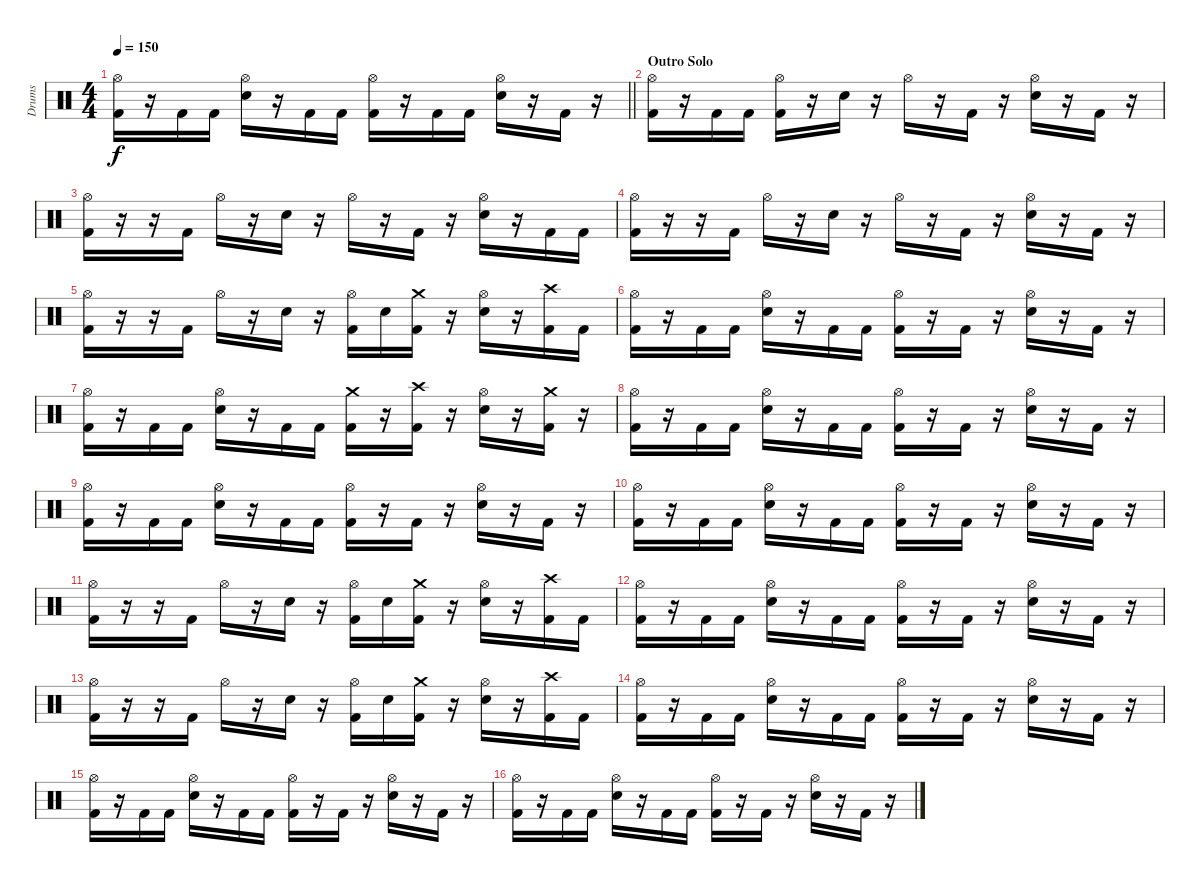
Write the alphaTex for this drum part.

\track ("Drums" "Drums") {instrument percussion}
\staff {score}
\articulation defaults
\ts (4 4)
\tempo 150
\clef neutral
\barLineRight lightlight
\ks c
("Hi-Hat (open)" "Kick (hit) 2").16{dy f} r.16 "Kick (hit) 2".16 "Kick (hit) 2".16 ("Hi-Hat (open)" "Snare (hit) 2").16 r.16 "Kick (hit) 2".16 "Kick (hit) 2".16 ("Hi-Hat (open)" "Kick (hit) 2").16 r.16 "Kick (hit) 2".16 "Kick (hit) 2".16 ("Hi-Hat (open)" "Snare (hit) 2").16 r.16 "Kick (hit) 2".16 r.16 |
\section ("" "Outro Solo")
("Hi-Hat (open)" "Kick (hit) 2").16 r.16 "Kick (hit) 2".16 "Kick (hit) 2".16 ("Hi-Hat (open)" "Kick (hit) 2").16 r.16 "Snare (hit) 2".16 r.16 "Hi-Hat (open)".16 r.16 "Kick (hit) 2".16 r.16 ("Hi-Hat (open)" "Snare (hit) 2").16 r.16 "Kick (hit) 2".16 r.16 |
("Hi-Hat (open)" "Kick (hit) 2").16 r.16 r.16 "Kick (hit) 2".16 "Hi-Hat (open)".16 r.16 "Snare (hit) 2".16 r.16 "Hi-Hat (open)".16 r.16 "Kick (hit) 2".16 r.16 ("Hi-Hat (open)" "Snare (hit) 2").16 r.16 "Kick (hit) 2".16 "Kick (hit) 2".16 |
("Hi-Hat (open)" "Kick (hit) 2").16 r.16 r.16 "Kick (hit) 2".16 "Hi-Hat (open)".16 r.16 "Snare (hit) 2".16 r.16 "Hi-Hat (open)".16 r.16 "Kick (hit) 2".16 r.16 ("Hi-Hat (open)" "Snare (hit) 2").16 r.16 "Kick (hit) 2".16 r.16 |
("Hi-Hat (open)" "Kick (hit) 2").16 r.16 r.16 "Kick (hit) 2".16 "Hi-Hat (open)".16 r.16 "Snare (hit) 2".16 r.16 ("Hi-Hat (open)" "Kick (hit) 2").16 "Snare (hit) 2".16 ("Crash medium (hit)" "Kick (hit) 2").16 r.16 ("Hi-Hat (open)" "Snare (hit) 2").16 r.16 ("Crash high (hit)" "Kick (hit) 2").16 "Kick (hit) 2".16 |
("Hi-Hat (open)" "Kick (hit) 2").16 r.16 "Kick (hit) 2".16 "Kick (hit) 2".16 ("Hi-Hat (open)" "Snare (hit) 2").16 r.16 "Kick (hit) 2".16 "Kick (hit) 2".16 ("Hi-Hat (open)" "Kick (hit) 2").16 r.16 "Kick (hit) 2".16 r.16 ("Hi-Hat (open)" "Snare (hit) 2").16 r.16 "Kick (hit) 2".16 r.16 |
("Hi-Hat (open)" "Kick (hit) 2").16 r.16 "Kick (hit) 2".16 "Kick (hit) 2".16 ("Hi-Hat (open)" "Snare (hit) 2").16 r.16 "Kick (hit) 2".16 "Kick (hit) 2".16 ("Crash medium (hit)" "Kick (hit) 2").16 r.16 ("Crash high (hit)" "Kick (hit) 2").16 r.16 ("Hi-Hat (open)" "Snare (hit) 2").16 r.16 ("Crash medium (hit)" "Kick (hit) 2").16 r.16 |
("Hi-Hat (open)" "Kick (hit) 2").16 r.16 "Kick (hit) 2".16 "Kick (hit) 2".16 ("Hi-Hat (open)" "Snare (hit) 2").16 r.16 "Kick (hit) 2".16 "Kick (hit) 2".16 ("Hi-Hat (open)" "Kick (hit) 2").16 r.16 "Kick (hit) 2".16 r.16 ("Hi-Hat (open)" "Snare (hit) 2").16 r.16 "Kick (hit) 2".16 r.16 |
("Hi-Hat (open)" "Kick (hit) 2").16 r.16 "Kick (hit) 2".16 "Kick (hit) 2".16 ("Hi-Hat (open)" "Snare (hit) 2").16 r.16 "Kick (hit) 2".16 "Kick (hit) 2".16 ("Hi-Hat (open)" "Kick (hit) 2").16 r.16 "Kick (hit) 2".16 r.16 ("Hi-Hat (open)" "Snare (hit) 2").16 r.16 "Kick (hit) 2".16 r.16 |
("Hi-Hat (open)" "Kick (hit) 2").16 r.16 "Kick (hit) 2".16 "Kick (hit) 2".16 ("Hi-Hat (open)" "Snare (hit) 2").16 r.16 "Kick (hit) 2".16 "Kick (hit) 2".16 ("Hi-Hat (open)" "Kick (hit) 2").16 r.16 "Kick (hit) 2".16 r.16 ("Hi-Hat (open)" "Snare (hit) 2").16 r.16 "Kick (hit) 2".16 r.16 |
("Hi-Hat (open)" "Kick (hit) 2").16 r.16 r.16 "Kick (hit) 2".16 "Hi-Hat (open)".16 r.16 "Snare (hit) 2".16 r.16 ("Hi-Hat (open)" "Kick (hit) 2").16 "Snare (hit) 2".16 ("Crash medium (hit)" "Kick (hit) 2").16 r.16 ("Hi-Hat (open)" "Snare (hit) 2").16 r.16 ("Crash high (hit)" "Kick (hit) 2").16 "Kick (hit) 2".16 |
("Hi-Hat (open)" "Kick (hit) 2").16 r.16 "Kick (hit) 2".16 "Kick (hit) 2".16 ("Hi-Hat (open)" "Snare (hit) 2").16 r.16 "Kick (hit) 2".16 "Kick (hit) 2".16 ("Hi-Hat (open)" "Kick (hit) 2").16 r.16 "Kick (hit) 2".16 r.16 ("Hi-Hat (open)" "Snare (hit) 2").16 r.16 "Kick (hit) 2".16 r.16 |
("Hi-Hat (open)" "Kick (hit) 2").16 r.16 r.16 "Kick (hit) 2".16 "Hi-Hat (open)".16 r.16 "Snare (hit) 2".16 r.16 ("Hi-Hat (open)" "Kick (hit) 2").16 "Snare (hit) 2".16 ("Crash medium (hit)" "Kick (hit) 2").16 r.16 ("Hi-Hat (open)" "Snare (hit) 2").16 r.16 ("Crash high (hit)" "Kick (hit) 2").16 "Kick (hit) 2".16 |
("Hi-Hat (open)" "Kick (hit) 2").16 r.16 "Kick (hit) 2".16 "Kick (hit) 2".16 ("Hi-Hat (open)" "Snare (hit) 2").16 r.16 "Kick (hit) 2".16 "Kick (hit) 2".16 ("Hi-Hat (open)" "Kick (hit) 2").16 r.16 "Kick (hit) 2".16 r.16 ("Hi-Hat (open)" "Snare (hit) 2").16 r.16 "Kick (hit) 2".16 r.16 |
("Hi-Hat (open)" "Kick (hit) 2").16 r.16 "Kick (hit) 2".16 "Kick (hit) 2".16 ("Hi-Hat (open)" "Snare (hit) 2").16 r.16 "Kick (hit) 2".16 "Kick (hit) 2".16 ("Hi-Hat (open)" "Kick (hit) 2").16 r.16 "Kick (hit) 2".16 r.16 ("Hi-Hat (open)" "Snare (hit) 2").16 r.16 "Kick (hit) 2".16 r.16 |
("Hi-Hat (open)" "Kick (hit) 2").16 r.16 "Kick (hit) 2".16 "Kick (hit) 2".16 ("Hi-Hat (open)" "Snare (hit) 2").16 r.16 "Kick (hit) 2".16 "Kick (hit) 2".16 ("Hi-Hat (open)" "Kick (hit) 2").16 r.16 "Kick (hit) 2".16 r.16 ("Hi-Hat (open)" "Snare (hit) 2").16 r.16 "Kick (hit) 2".16 r.16
